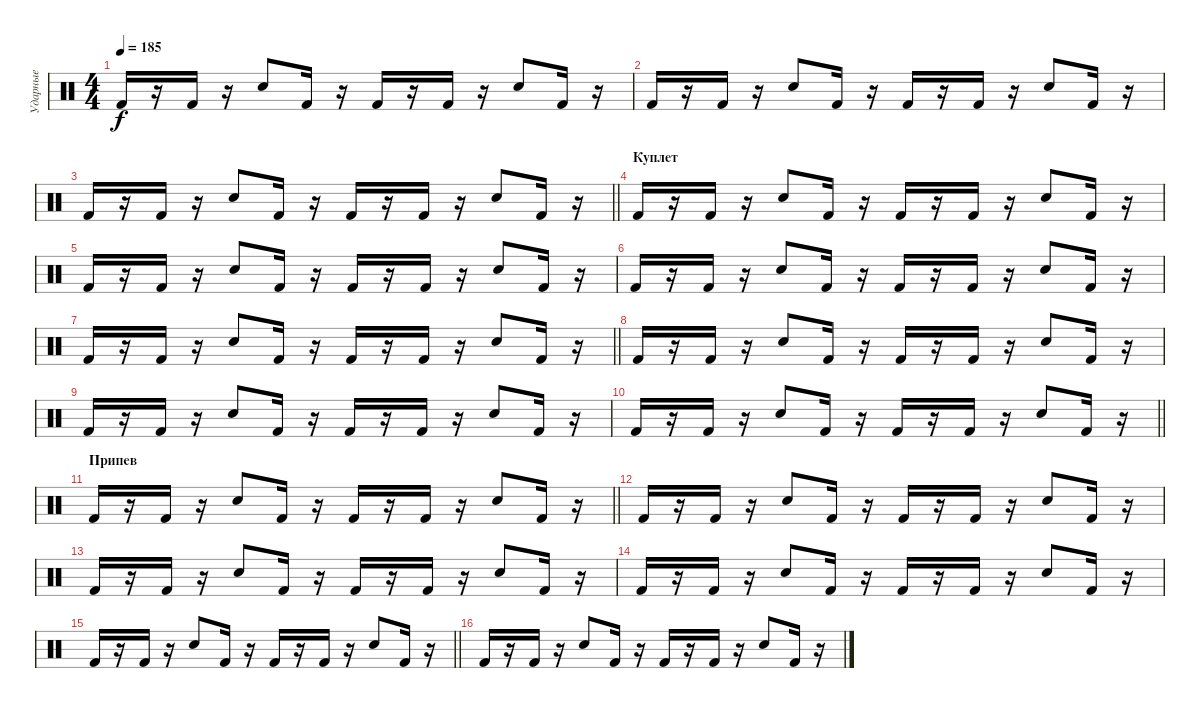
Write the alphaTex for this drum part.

\track ("Ударные" "Ударные") {instrument percussion}
\staff {score}
\articulation defaults
\ts (4 4)
\tempo 185
\clef neutral
\ks c "Kick (hit) 2".16{dy f}
r.16 "Kick (hit) 2".16 r.16 "Electric Snare (hit)".8 "Kick (hit) 2".16 r.16 "Kick (hit) 2".16 r.16 "Kick (hit) 2".16 r.16 "Electric Snare (hit)".8 "Kick (hit) 2".16 r.16 |
"Kick (hit) 2".16 r.16 "Kick (hit) 2".16 r.16 "Electric Snare (hit)".8 "Kick (hit) 2".16 r.16 "Kick (hit) 2".16 r.16 "Kick (hit) 2".16 r.16 "Electric Snare (hit)".8 "Kick (hit) 2".16 r.16 |
\barLineRight lightlight "Kick (hit) 2".16
r.16 "Kick (hit) 2".16 r.16 "Electric Snare (hit)".8 "Kick (hit) 2".16 r.16 "Kick (hit) 2".16 r.16 "Kick (hit) 2".16 r.16 "Electric Snare (hit)".8 "Kick (hit) 2".16 r.16 |
\section ("" "Куплет")
"Kick (hit) 2".16 r.16 "Kick (hit) 2".16 r.16 "Electric Snare (hit)".8 "Kick (hit) 2".16 r.16 "Kick (hit) 2".16 r.16 "Kick (hit) 2".16 r.16 "Electric Snare (hit)".8 "Kick (hit) 2".16 r.16 |
"Kick (hit) 2".16 r.16 "Kick (hit) 2".16 r.16 "Electric Snare (hit)".8 "Kick (hit) 2".16 r.16 "Kick (hit) 2".16 r.16 "Kick (hit) 2".16 r.16 "Electric Snare (hit)".8 "Kick (hit) 2".16 r.16 |
"Kick (hit) 2".16 r.16 "Kick (hit) 2".16 r.16 "Electric Snare (hit)".8 "Kick (hit) 2".16 r.16 "Kick (hit) 2".16 r.16 "Kick (hit) 2".16 r.16 "Electric Snare (hit)".8 "Kick (hit) 2".16 r.16 |
\barLineRight lightlight "Kick (hit) 2".16
r.16 "Kick (hit) 2".16 r.16 "Electric Snare (hit)".8 "Kick (hit) 2".16 r.16 "Kick (hit) 2".16 r.16 "Kick (hit) 2".16 r.16 "Electric Snare (hit)".8 "Kick (hit) 2".16 r.16 |
"Kick (hit) 2".16 r.16 "Kick (hit) 2".16 r.16 "Electric Snare (hit)".8 "Kick (hit) 2".16 r.16 "Kick (hit) 2".16 r.16 "Kick (hit) 2".16 r.16 "Electric Snare (hit)".8 "Kick (hit) 2".16 r.16 |
"Kick (hit) 2".16 r.16 "Kick (hit) 2".16 r.16 "Electric Snare (hit)".8 "Kick (hit) 2".16 r.16 "Kick (hit) 2".16 r.16 "Kick (hit) 2".16 r.16 "Electric Snare (hit)".8 "Kick (hit) 2".16 r.16 |
\barLineRight lightlight "Kick (hit) 2".16
r.16 "Kick (hit) 2".16 r.16 "Electric Snare (hit)".8 "Kick (hit) 2".16 r.16 "Kick (hit) 2".16 r.16 "Kick (hit) 2".16 r.16 "Electric Snare (hit)".8 "Kick (hit) 2".16 r.16 |
\section ("" "Припев")
\barLineRight lightlight "Kick (hit) 2".16
r.16 "Kick (hit) 2".16 r.16 "Electric Snare (hit)".8 "Kick (hit) 2".16 r.16 "Kick (hit) 2".16 r.16 "Kick (hit) 2".16 r.16 "Electric Snare (hit)".8 "Kick (hit) 2".16 r.16 |
"Kick (hit) 2".16 r.16 "Kick (hit) 2".16 r.16 "Electric Snare (hit)".8 "Kick (hit) 2".16 r.16 "Kick (hit) 2".16 r.16 "Kick (hit) 2".16 r.16 "Electric Snare (hit)".8 "Kick (hit) 2".16 r.16 |
"Kick (hit) 2".16 r.16 "Kick (hit) 2".16 r.16 "Electric Snare (hit)".8 "Kick (hit) 2".16 r.16 "Kick (hit) 2".16 r.16 "Kick (hit) 2".16 r.16 "Electric Snare (hit)".8 "Kick (hit) 2".16 r.16 |
"Kick (hit) 2".16 r.16 "Kick (hit) 2".16 r.16 "Electric Snare (hit)".8 "Kick (hit) 2".16 r.16 "Kick (hit) 2".16 r.16 "Kick (hit) 2".16 r.16 "Electric Snare (hit)".8 "Kick (hit) 2".16 r.16 |
\barLineRight lightlight "Kick (hit) 2".16
r.16 "Kick (hit) 2".16 r.16 "Electric Snare (hit)".8 "Kick (hit) 2".16 r.16 "Kick (hit) 2".16 r.16 "Kick (hit) 2".16 r.16 "Electric Snare (hit)".8 "Kick (hit) 2".16 r.16 |
"Kick (hit) 2".16 r.16 "Kick (hit) 2".16 r.16 "Electric Snare (hit)".8 "Kick (hit) 2".16 r.16 "Kick (hit) 2".16 r.16 "Kick (hit) 2".16 r.16 "Electric Snare (hit)".8 "Kick (hit) 2".16 r.16
